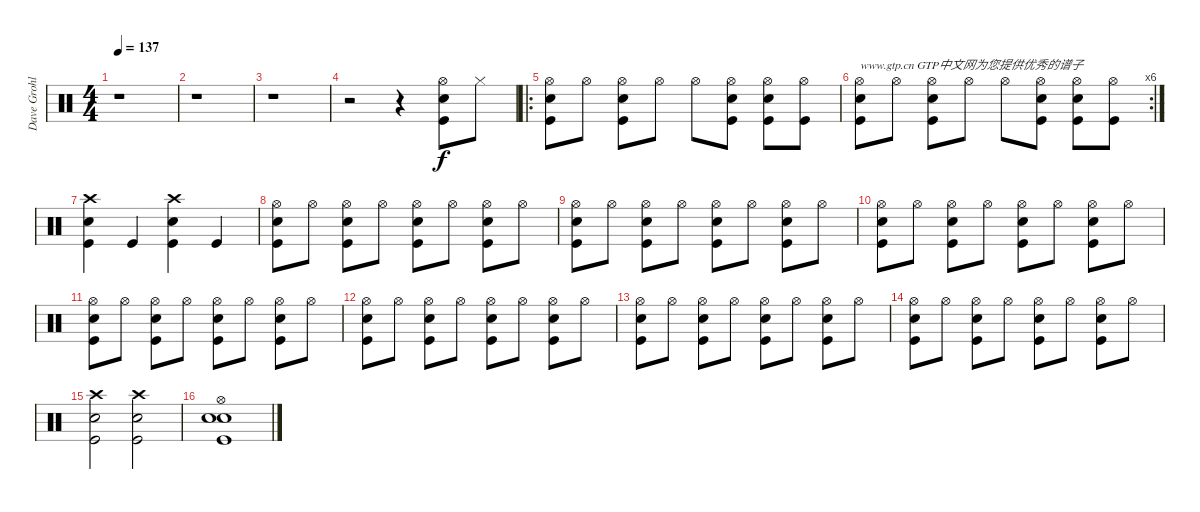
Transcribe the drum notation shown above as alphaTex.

\track ("Dave Grohl" "Dave Grohl") {instrument percussion}
\staff {score}
\articulation defaults
\ts (4 4)
\tempo 137
\clef neutral
\ks c
r.1{dy f} |
r.1 |
r.1 |
r.2 r.4 ("Electric Snare (hit)" "Hi-Hat (open)" "Kick (hit)").8 "Hi-Hat (closed)".8 |
\ro
("Snare (hit) 2" "Hi-Hat (open)" "Kick (hit)").8 "Hi-Hat (open)".8 ("Electric Snare (hit)" "Hi-Hat (open)" "Kick (hit)").8 "Hi-Hat (open)".8 "Hi-Hat (open)".8 ("Electric Snare (hit)" "Hi-Hat (open)" "Kick (hit)").8 ("Electric Snare (hit)" "Hi-Hat (open)" "Kick (hit)").8 ("Hi-Hat (open)" "Kick (hit)").8 |
\rc 6
("Snare (hit) 2" "Hi-Hat (open)" "Kick (hit)").8{txt "www.gtp.cn GTP中文网为您提供优秀的谱子"} "Hi-Hat (open)".8 ("Electric Snare (hit)" "Hi-Hat (open)" "Kick (hit)").8 "Hi-Hat (open)".8 "Hi-Hat (open)".8 ("Electric Snare (hit)" "Hi-Hat (open)" "Kick (hit)").8 ("Electric Snare (hit)" "Hi-Hat (open)" "Kick (hit)").8 ("Hi-Hat (open)" "Kick (hit)").8 |
("Electric Snare (hit)" "Kick (hit)" "Crash high (hit)").4 "Kick (hit)".4 ("Electric Snare (hit)" "Kick (hit)" "Crash high (hit)").4 "Kick (hit)".4 |
("Electric Snare (hit)" "Kick (hit)" "Hi-Hat (open)").8 "Hi-Hat (open)".8 ("Electric Snare (hit)" "Kick (hit)" "Hi-Hat (open)").8 "Hi-Hat (open)".8 ("Electric Snare (hit)" "Kick (hit)" "Hi-Hat (open)").8 "Hi-Hat (open)".8 ("Electric Snare (hit)" "Kick (hit)" "Hi-Hat (open)").8 "Hi-Hat (open)".8 |
("Electric Snare (hit)" "Kick (hit)" "Hi-Hat (open)").8 "Hi-Hat (open)".8 ("Electric Snare (hit)" "Kick (hit)" "Hi-Hat (open)").8 "Hi-Hat (open)".8 ("Electric Snare (hit)" "Kick (hit)" "Hi-Hat (open)").8 "Hi-Hat (open)".8 ("Electric Snare (hit)" "Kick (hit)" "Hi-Hat (open)").8 "Hi-Hat (open)".8 |
("Electric Snare (hit)" "Kick (hit)" "Hi-Hat (open)").8 "Hi-Hat (open)".8 ("Electric Snare (hit)" "Kick (hit)" "Hi-Hat (open)").8 "Hi-Hat (open)".8 ("Electric Snare (hit)" "Kick (hit)" "Hi-Hat (open)").8 "Hi-Hat (open)".8 ("Electric Snare (hit)" "Kick (hit)" "Hi-Hat (open)").8 "Hi-Hat (open)".8 |
("Electric Snare (hit)" "Kick (hit)" "Hi-Hat (open)").8 "Hi-Hat (open)".8 ("Electric Snare (hit)" "Kick (hit)" "Hi-Hat (open)").8 "Hi-Hat (open)".8 ("Electric Snare (hit)" "Kick (hit)" "Hi-Hat (open)").8 "Hi-Hat (open)".8 ("Electric Snare (hit)" "Kick (hit)" "Hi-Hat (open)").8 "Hi-Hat (open)".8 |
("Electric Snare (hit)" "Kick (hit)" "Hi-Hat (open)").8 "Hi-Hat (open)".8 ("Electric Snare (hit)" "Kick (hit)" "Hi-Hat (open)").8 "Hi-Hat (open)".8 ("Electric Snare (hit)" "Kick (hit)" "Hi-Hat (open)").8 "Hi-Hat (open)".8 ("Electric Snare (hit)" "Kick (hit)" "Hi-Hat (open)").8 "Hi-Hat (open)".8 |
("Electric Snare (hit)" "Kick (hit)" "Hi-Hat (open)").8 "Hi-Hat (open)".8 ("Electric Snare (hit)" "Kick (hit)" "Hi-Hat (open)").8 "Hi-Hat (open)".8 ("Electric Snare (hit)" "Kick (hit)" "Hi-Hat (open)").8 "Hi-Hat (open)".8 ("Electric Snare (hit)" "Kick (hit)" "Hi-Hat (open)").8 "Hi-Hat (open)".8 |
("Electric Snare (hit)" "Kick (hit)" "Hi-Hat (open)").8 "Hi-Hat (open)".8 ("Electric Snare (hit)" "Kick (hit)" "Hi-Hat (open)").8 "Hi-Hat (open)".8 ("Electric Snare (hit)" "Kick (hit)" "Hi-Hat (open)").8 "Hi-Hat (open)".8 ("Electric Snare (hit)" "Kick (hit)" "Hi-Hat (open)").8 "Hi-Hat (open)".8 |
("Electric Snare (hit)" "Crash high (hit)" "Kick (hit)").2 ("Electric Snare (hit)" "Crash high (hit)" "Kick (hit)").2 |
("Electric Snare (hit)" "Snare (hit) 2" "Hi-Hat (open)" "Kick (hit)").1
